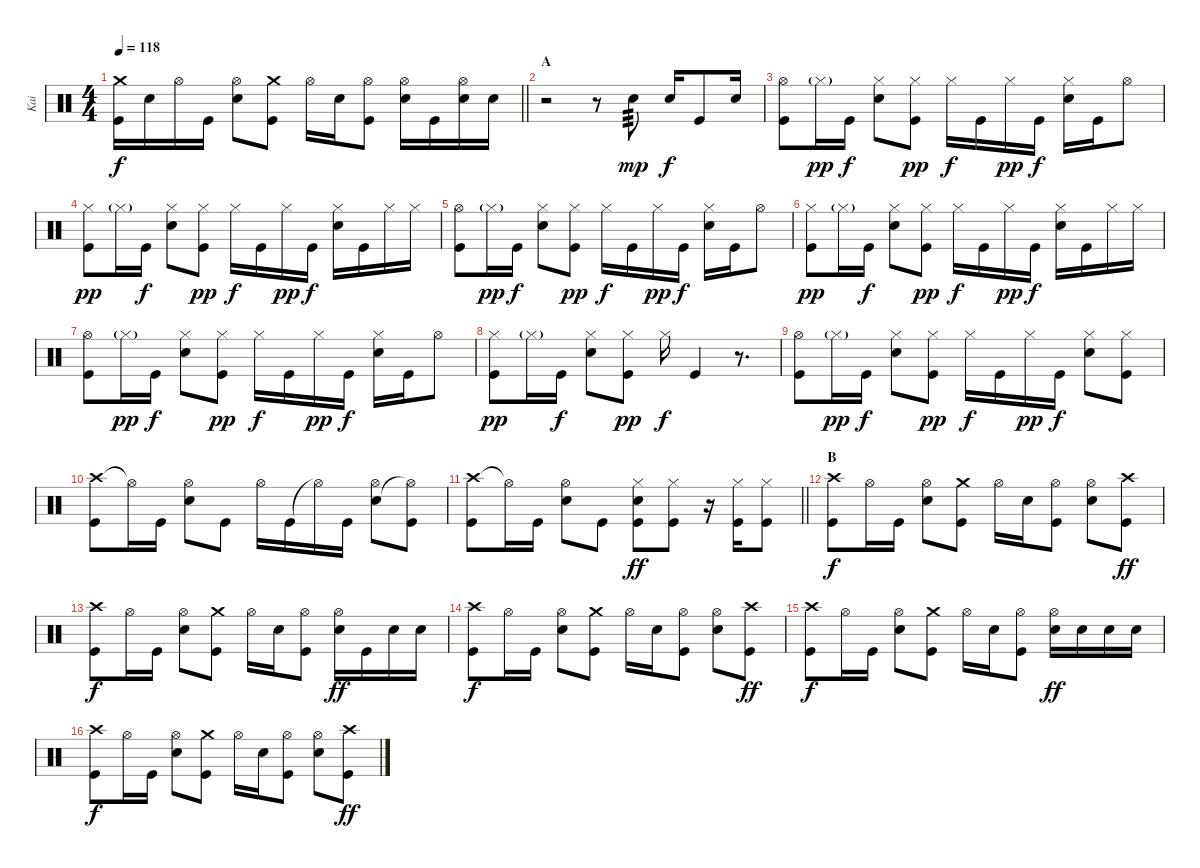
\track ("Kai" "Kai") {instrument percussion}
\staff {score}
\articulation defaults
\ts (4 4)
\tempo 118
\clef neutral
\barLineRight lightlight
\ks c
("Kick (hit)" "Crash medium (hit)").16{dy f} "Snare (hit) 2".16 "Hi-Hat (open)".16 "Kick (hit)".16 ("Snare (hit) 2" "Hi-Hat (open)").8 ("Kick (hit)" "Crash medium (hit)").8 "Hi-Hat (open)".16 "Snare (hit) 2".16 ("Kick (hit)" "Hi-Hat (open)").8 ("Snare (hit) 2" "Hi-Hat (open)").16 "Kick (hit)".16 ("Snare (hit) 2" "Hi-Hat (open)").16 "Snare (hit) 2".16 |
\section ("" "A")
r.2 r.8 "Snare (hit) 2".8{tp 3 dy mp} "Snare (hit) 2".16{dy f} "Kick (hit)".8 "Snare (hit) 2".16 |
("Kick (hit)" "Hi-Hat (open)").8 "Hi-Hat (closed)"{g}.16{dy pp} "Kick (hit)".16{dy f} ("Hi-Hat (closed)" "Snare (hit) 2").8 ("Hi-Hat (closed)" "Kick (hit)").8{dy pp} "Hi-Hat (closed)".16{dy f} "Kick (hit)".16 "Hi-Hat (closed)".16{dy pp} "Kick (hit)".16{dy f} ("Hi-Hat (closed)" "Snare (hit) 2").16 "Kick (hit)".16 "Hi-Hat (open)".8 |
("Hi-Hat (closed)" "Kick (hit)").8{dy pp} "Hi-Hat (closed)"{g}.16 "Kick (hit)".16{dy f} ("Hi-Hat (closed)" "Snare (hit) 2").8 ("Hi-Hat (closed)" "Kick (hit)").8{dy pp} "Hi-Hat (closed)".16{dy f} "Kick (hit)".16 "Hi-Hat (closed)".16{dy pp} "Kick (hit)".16{dy f} ("Hi-Hat (closed)" "Snare (hit) 2").16 "Kick (hit)".16 "Hi-Hat (closed)".16 "Hi-Hat (closed)".16 |
("Kick (hit)" "Hi-Hat (open)").8 "Hi-Hat (closed)"{g}.16{dy pp} "Kick (hit)".16{dy f} ("Hi-Hat (closed)" "Snare (hit) 2").8 ("Hi-Hat (closed)" "Kick (hit)").8{dy pp} "Hi-Hat (closed)".16{dy f} "Kick (hit)".16 "Hi-Hat (closed)".16{dy pp} "Kick (hit)".16{dy f} ("Hi-Hat (closed)" "Snare (hit) 2").16 "Kick (hit)".16 "Hi-Hat (open)".8 |
("Hi-Hat (closed)" "Kick (hit)").8{dy pp} "Hi-Hat (closed)"{g}.16 "Kick (hit)".16{dy f} ("Hi-Hat (closed)" "Snare (hit) 2").8 ("Hi-Hat (closed)" "Kick (hit)").8{dy pp} "Hi-Hat (closed)".16{dy f} "Kick (hit)".16 "Hi-Hat (closed)".16{dy pp} "Kick (hit)".16{dy f} ("Hi-Hat (closed)" "Snare (hit) 2").16 "Kick (hit)".16 "Hi-Hat (closed)".16 "Hi-Hat (closed)".16 |
("Kick (hit)" "Hi-Hat (open)").8 "Hi-Hat (closed)"{g}.16{dy pp} "Kick (hit)".16{dy f} ("Hi-Hat (closed)" "Snare (hit) 2").8 ("Hi-Hat (closed)" "Kick (hit)").8{dy pp} "Hi-Hat (closed)".16{dy f} "Kick (hit)".16 "Hi-Hat (closed)".16{dy pp} "Kick (hit)".16{dy f} ("Hi-Hat (closed)" "Snare (hit) 2").16 "Kick (hit)".16 "Hi-Hat (open)".8 |
("Hi-Hat (closed)" "Kick (hit)").8{dy pp} "Hi-Hat (closed)"{g}.16 "Kick (hit)".16{dy f} ("Hi-Hat (closed)" "Snare (hit) 2").8 ("Hi-Hat (closed)" "Kick (hit)").8{dy pp} "Hi-Hat (closed)".16{dy f} "Kick (hit)".4 r.8{d} |
("Kick (hit)" "Hi-Hat (open)").8 "Hi-Hat (closed)"{g}.16{dy pp} "Kick (hit)".16{dy f} ("Hi-Hat (closed)" "Snare (hit) 2").8 ("Hi-Hat (closed)" "Kick (hit)").8{dy pp} "Hi-Hat (closed)".16{dy f} "Kick (hit)".16 "Hi-Hat (closed)".16{dy pp} "Kick (hit)".16{dy f} ("Hi-Hat (closed)" "Snare (hit) 2").8 ("Kick (hit)" "Hi-Hat (closed)").8 |
("Crash high (hit)" "Kick (hit)").8 "Hi-Hat (open)"{t}.16 "Kick (hit)".16 ("Snare (hit) 2" "Hi-Hat (open)").8 "Kick (hit)".8 "Hi-Hat (open)".16 "Kick (hit)".16 "Hi-Hat (open)"{t}.16 "Kick (hit)".16 ("Hi-Hat (open)" "Snare (hit) 2").8 ("Kick (hit)" "Hi-Hat (open)"{t}).8 |
\barLineRight lightlight
("Crash high (hit)" "Kick (hit)").8 "Hi-Hat (open)"{t}.16 "Kick (hit)".16 ("Snare (hit) 2" "Hi-Hat (open)").8 "Kick (hit)".8 ("Kick (hit)" "Snare (hit) 2" "Hi-Hat (closed)").8{dy ff} ("Hi-Hat (closed)" "Kick (hit)").8 r.16 ("Hi-Hat (closed)" "Kick (hit)").16 ("Hi-Hat (closed)" "Kick (hit)").8 |
\section ("" "B")
("Kick (hit)" "Crash high (hit)").8{dy f} "Hi-Hat (open)".16 "Kick (hit)".16 ("Hi-Hat (open)" "Snare (hit) 2").8 ("Crash medium (hit)" "Kick (hit)").8 "Hi-Hat (open)".16 "Snare (hit) 2".16 ("Kick (hit)" "Hi-Hat (open)").8 ("Hi-Hat (open)" "Snare (hit) 2").8 ("Kick (hit)" "Crash high (hit)").8{dy ff} |
("Kick (hit)" "Crash high (hit)").8{dy f} "Hi-Hat (open)".16 "Kick (hit)".16 ("Hi-Hat (open)" "Snare (hit) 2").8 ("Crash medium (hit)" "Kick (hit)").8 "Hi-Hat (open)".16 "Snare (hit) 2".16 ("Kick (hit)" "Hi-Hat (open)").8 ("Hi-Hat (open)" "Snare (hit) 2").16{dy ff} "Kick (hit)".16 "Snare (hit) 2".16 "Snare (hit) 2".16 |
("Kick (hit)" "Crash high (hit)").8{dy f} "Hi-Hat (open)".16 "Kick (hit)".16 ("Hi-Hat (open)" "Snare (hit) 2").8 ("Crash medium (hit)" "Kick (hit)").8 "Hi-Hat (open)".16 "Snare (hit) 2".16 ("Kick (hit)" "Hi-Hat (open)").8 ("Hi-Hat (open)" "Snare (hit) 2").8 ("Kick (hit)" "Crash high (hit)").8{dy ff} |
("Kick (hit)" "Crash high (hit)").8{dy f} "Hi-Hat (open)".16 "Kick (hit)".16 ("Hi-Hat (open)" "Snare (hit) 2").8 ("Crash medium (hit)" "Kick (hit)").8 "Hi-Hat (open)".16 "Snare (hit) 2".16 ("Kick (hit)" "Hi-Hat (open)").8 ("Hi-Hat (open)" "Snare (hit) 2").16{dy ff} "Snare (hit) 2".16 "Snare (hit) 2".16 "Snare (hit) 2".16 |
("Kick (hit)" "Crash high (hit)").8{dy f} "Hi-Hat (open)".16 "Kick (hit)".16 ("Hi-Hat (open)" "Snare (hit) 2").8 ("Crash medium (hit)" "Kick (hit)").8 "Hi-Hat (open)".16 "Snare (hit) 2".16 ("Kick (hit)" "Hi-Hat (open)").8 ("Hi-Hat (open)" "Snare (hit) 2").8 ("Kick (hit)" "Crash high (hit)").8{dy ff}
